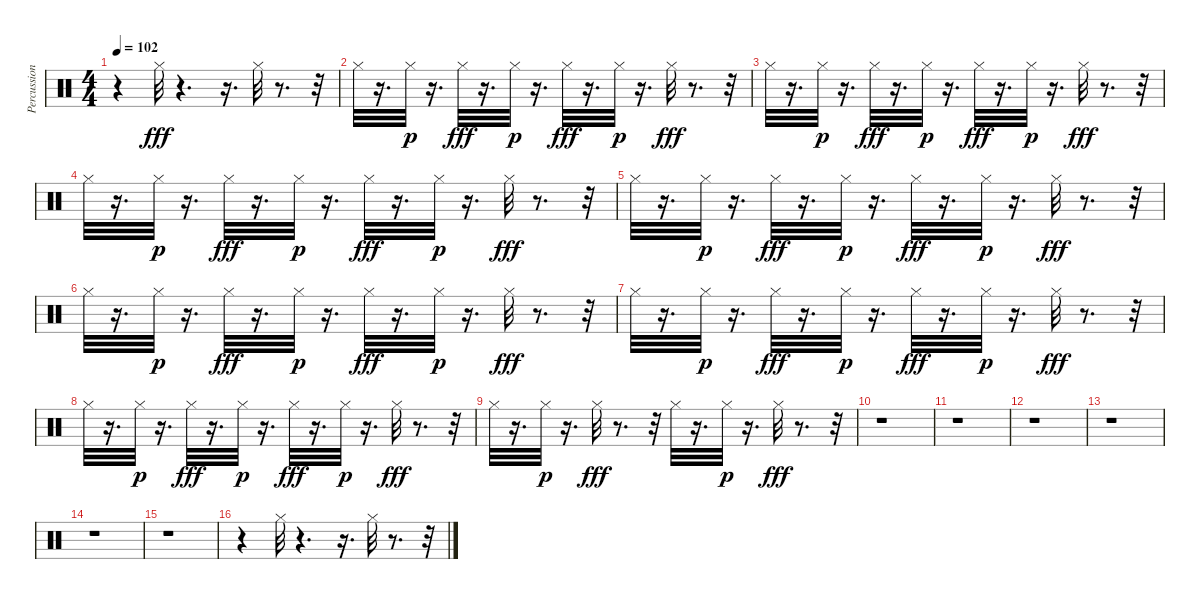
\track ("Percussion" "Percussion") {instrument percussion}
\staff {score}
\articulation defaults
\ts (4 4)
\tempo 102
\clef neutral
\ks c
r.4{dy fff} "Hi-Hat (closed)".32 r.4{d} r.16{d} "Hi-Hat (closed)".32 r.8{d} r.32 |
"Hi-Hat (closed)".32 r.16{d} "Hi-Hat (closed)".32{dy p} r.16{d} "Hi-Hat (closed)".32{dy fff} r.16{d} "Hi-Hat (closed)".32{dy p} r.16{d} "Hi-Hat (closed)".32{dy fff} r.16{d} "Hi-Hat (closed)".32{dy p} r.16{d} "Hi-Hat (closed)".32{dy fff} r.8{d} r.32 |
"Hi-Hat (closed)".32 r.16{d} "Hi-Hat (closed)".32{dy p} r.16{d} "Hi-Hat (closed)".32{dy fff} r.16{d} "Hi-Hat (closed)".32{dy p} r.16{d} "Hi-Hat (closed)".32{dy fff} r.16{d} "Hi-Hat (closed)".32{dy p} r.16{d} "Hi-Hat (closed)".32{dy fff} r.8{d} r.32 |
"Hi-Hat (closed)".32 r.16{d} "Hi-Hat (closed)".32{dy p} r.16{d} "Hi-Hat (closed)".32{dy fff} r.16{d} "Hi-Hat (closed)".32{dy p} r.16{d} "Hi-Hat (closed)".32{dy fff} r.16{d} "Hi-Hat (closed)".32{dy p} r.16{d} "Hi-Hat (closed)".32{dy fff} r.8{d} r.32 |
"Hi-Hat (closed)".32 r.16{d} "Hi-Hat (closed)".32{dy p} r.16{d} "Hi-Hat (closed)".32{dy fff} r.16{d} "Hi-Hat (closed)".32{dy p} r.16{d} "Hi-Hat (closed)".32{dy fff} r.16{d} "Hi-Hat (closed)".32{dy p} r.16{d} "Hi-Hat (closed)".32{dy fff} r.8{d} r.32 |
"Hi-Hat (closed)".32 r.16{d} "Hi-Hat (closed)".32{dy p} r.16{d} "Hi-Hat (closed)".32{dy fff} r.16{d} "Hi-Hat (closed)".32{dy p} r.16{d} "Hi-Hat (closed)".32{dy fff} r.16{d} "Hi-Hat (closed)".32{dy p} r.16{d} "Hi-Hat (closed)".32{dy fff} r.8{d} r.32 |
"Hi-Hat (closed)".32 r.16{d} "Hi-Hat (closed)".32{dy p} r.16{d} "Hi-Hat (closed)".32{dy fff} r.16{d} "Hi-Hat (closed)".32{dy p} r.16{d} "Hi-Hat (closed)".32{dy fff} r.16{d} "Hi-Hat (closed)".32{dy p} r.16{d} "Hi-Hat (closed)".32{dy fff} r.8{d} r.32 |
"Hi-Hat (closed)".32 r.16{d} "Hi-Hat (closed)".32{dy p} r.16{d} "Hi-Hat (closed)".32{dy fff} r.16{d} "Hi-Hat (closed)".32{dy p} r.16{d} "Hi-Hat (closed)".32{dy fff} r.16{d} "Hi-Hat (closed)".32{dy p} r.16{d} "Hi-Hat (closed)".32{dy fff} r.8{d} r.32 |
"Hi-Hat (closed)".32 r.16{d} "Hi-Hat (closed)".32{dy p} r.16{d} "Hi-Hat (closed)".32{dy fff} r.8{d} r.32 "Hi-Hat (closed)".32 r.16{d} "Hi-Hat (closed)".32{dy p} r.16{d} "Hi-Hat (closed)".32{dy fff} r.8{d} r.32 |
r.1 |
r.1 |
r.1 |
r.1 |
r.1 |
r.1 |
r.4 "Hi-Hat (closed)".32 r.4{d} r.16{d} "Hi-Hat (closed)".32 r.8{d} r.32
